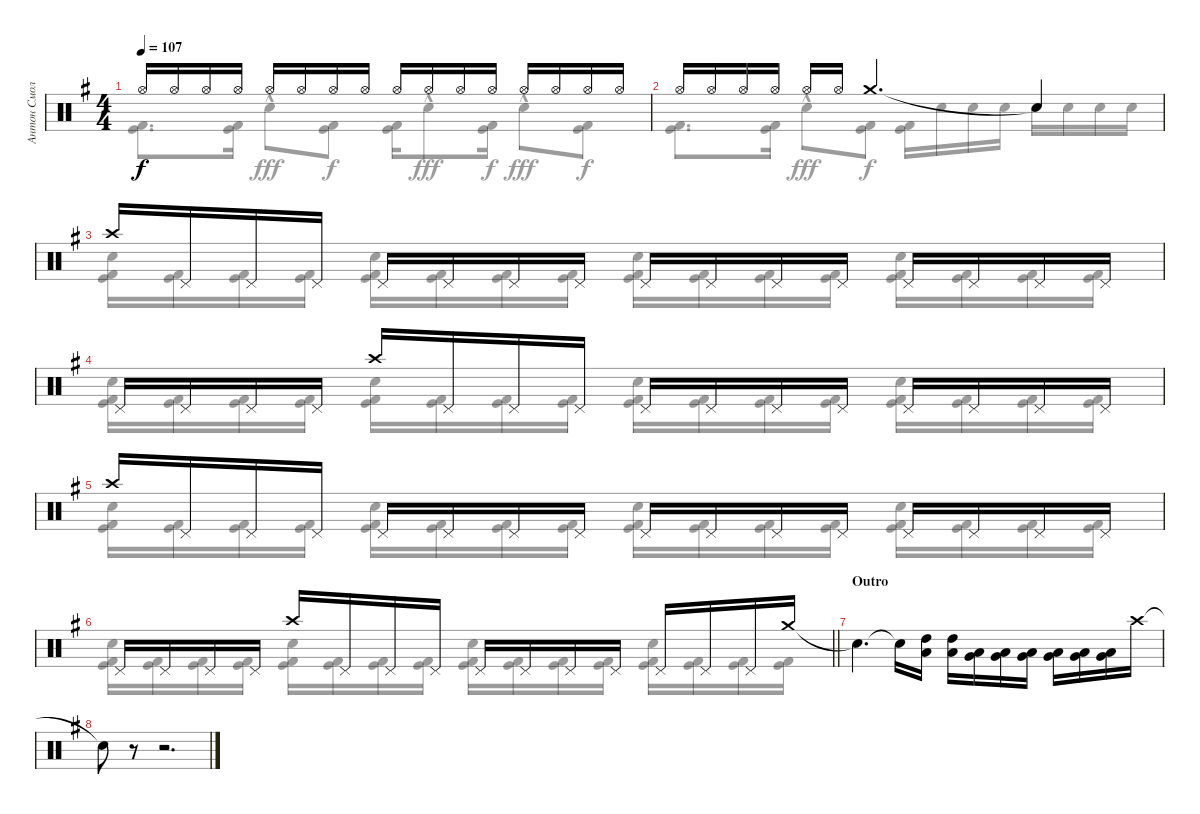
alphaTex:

\track ("Антон Смольянин" "Антон Смол") {instrument percussion}
\staff {score}
\articulation defaults
\voice
\ts (4 4)
\tempo 107
\clef neutral
\ks g "Hi-Hat (open)".16{dy f} "Hi-Hat (open)".16 "Hi-Hat (open)".16 "Hi-Hat (open)".16 "Hi-Hat (open)".16 "Hi-Hat (open)".16 "Hi-Hat (open)".16 "Hi-Hat (open)".16 "Hi-Hat (open)".16 "Hi-Hat (open)".16 "Hi-Hat (open)".16 "Hi-Hat (open)".16 "Hi-Hat (open)".16 "Hi-Hat (open)".16 "Hi-Hat (open)".16 "Hi-Hat (open)".16
|
"Hi-Hat (open)".16 "Hi-Hat (open)".16 "Hi-Hat (open)".16 "Hi-Hat (open)".16 "Hi-Hat (open)".16 "Hi-Hat (open)".16 "Crash medium (hit)".4{d} "Snare (hit)"{t}.4 |
"Crash high (hit)".16 "Pedal Hi-Hat (hit)".16 "Pedal Hi-Hat (hit)".16 "Pedal Hi-Hat (hit)".16 "Pedal Hi-Hat (hit)".16 "Pedal Hi-Hat (hit)".16 "Pedal Hi-Hat (hit)".16 "Pedal Hi-Hat (hit)".16 "Pedal Hi-Hat (hit)".16 "Pedal Hi-Hat (hit)".16 "Pedal Hi-Hat (hit)".16 "Pedal Hi-Hat (hit)".16 "Pedal Hi-Hat (hit)".16 "Pedal Hi-Hat (hit)".16 "Pedal Hi-Hat (hit)".16 "Pedal Hi-Hat (hit)".16 |
"Pedal Hi-Hat (hit)".16 "Pedal Hi-Hat (hit)".16 "Pedal Hi-Hat (hit)".16 "Pedal Hi-Hat (hit)".16 "Crash high (hit)".16 "Pedal Hi-Hat (hit)".16 "Pedal Hi-Hat (hit)".16 "Pedal Hi-Hat (hit)".16 "Pedal Hi-Hat (hit)".16 "Pedal Hi-Hat (hit)".16 "Pedal Hi-Hat (hit)".16 "Pedal Hi-Hat (hit)".16 "Pedal Hi-Hat (hit)".16 "Pedal Hi-Hat (hit)".16 "Pedal Hi-Hat (hit)".16 "Pedal Hi-Hat (hit)".16 |
"Crash high (hit)".16 "Pedal Hi-Hat (hit)".16 "Pedal Hi-Hat (hit)".16 "Pedal Hi-Hat (hit)".16 "Pedal Hi-Hat (hit)".16 "Pedal Hi-Hat (hit)".16 "Pedal Hi-Hat (hit)".16 "Pedal Hi-Hat (hit)".16 "Pedal Hi-Hat (hit)".16 "Pedal Hi-Hat (hit)".16 "Pedal Hi-Hat (hit)".16 "Pedal Hi-Hat (hit)".16 "Pedal Hi-Hat (hit)".16 "Pedal Hi-Hat (hit)".16 "Pedal Hi-Hat (hit)".16 "Pedal Hi-Hat (hit)".16 |
\barLineRight lightlight "Pedal Hi-Hat (hit)".16 "Pedal Hi-Hat (hit)".16 "Pedal Hi-Hat (hit)".16 "Pedal Hi-Hat (hit)".16 "Crash high (hit)".16 "Pedal Hi-Hat (hit)".16 "Pedal Hi-Hat (hit)".16 "Pedal Hi-Hat (hit)".16 "Pedal Hi-Hat (hit)".16 "Pedal Hi-Hat (hit)".16 "Pedal Hi-Hat (hit)".16 "Pedal Hi-Hat (hit)".16 "Pedal Hi-Hat (hit)".16 "Pedal Hi-Hat (hit)".16 "Pedal Hi-Hat (hit)".16 "Crash medium (hit)".16
|
\section ("" "Outro")
"Snare (hit)"{t}.4{d} "Snare (hit)"{t}.16 ("Low Tom (hit)" "High Tom (hit)").16 ("High Tom (hit)" "Low Tom (hit)").16 ("Low Tom (hit)" "Very Low Tom (hit)").16 ("Low Tom (hit)" "Very Low Tom (hit)").16 ("Very Low Tom (hit)" "Low Tom (hit)").16 ("Very Low Tom (hit)" "Low Tom (hit)").16 ("Low Tom (hit)" "Very Low Tom (hit)").16 ("Low Tom (hit)" "Very Low Tom (hit)").16 "Crash high (hit)".16 |
"Snare (hit)"{t}.8 r.8 r.2{d}
\voice
\clef neutral
\ottava regular
\simile none
\ks g
("Kick (hit)" "Kick (hit) 2").8{d dy f} ("Kick (hit)" "Kick (hit) 2").16 "Snare (hit) 2"{hac}.8{dy fff} ("Kick (hit)" "Kick (hit) 2").8{dy f} ("Kick (hit)" "Kick (hit) 2").16 "Snare (hit) 2"{hac}.8{dy fff} ("Kick (hit)" "Kick (hit) 2").16{dy f} "Snare (hit) 2"{hac}.8{dy fff} ("Kick (hit)" "Kick (hit) 2").8{dy f} |
("Kick (hit)" "Kick (hit) 2").8{d} ("Kick (hit)" "Kick (hit) 2").16 "Snare (hit) 2"{hac}.8{dy fff} ("Kick (hit)" "Kick (hit) 2").8{dy f} ("Kick (hit)" "Kick (hit) 2").16 "Snare (hit) 2".16 "Snare (hit) 2".16 "Snare (hit) 2".16 "Snare (hit) 2".16 "Snare (hit) 2".16 "Snare (hit) 2".16 "Snare (hit) 2".16 |
("Kick (hit)" "Kick (hit) 2" "Snare (hit) 2").16 ("Kick (hit)" "Kick (hit) 2").16 ("Kick (hit)" "Kick (hit) 2").16 ("Kick (hit)" "Kick (hit) 2").16 ("Kick (hit)" "Kick (hit) 2" "Snare (hit) 2").16 ("Kick (hit)" "Kick (hit) 2").16 ("Kick (hit)" "Kick (hit) 2").16 ("Kick (hit)" "Kick (hit) 2").16 ("Kick (hit)" "Kick (hit) 2" "Snare (hit) 2").16 ("Kick (hit)" "Kick (hit) 2").16 ("Kick (hit)" "Kick (hit) 2").16 ("Kick (hit)" "Kick (hit) 2").16 ("Kick (hit)" "Kick (hit) 2" "Snare (hit) 2").16 ("Kick (hit)" "Kick (hit) 2").16 ("Kick (hit)" "Kick (hit) 2").16 ("Kick (hit)" "Kick (hit) 2").16 |
("Kick (hit)" "Kick (hit) 2" "Snare (hit) 2").16 ("Kick (hit)" "Kick (hit) 2").16 ("Kick (hit)" "Kick (hit) 2").16 ("Kick (hit)" "Kick (hit) 2").16 ("Kick (hit)" "Kick (hit) 2" "Snare (hit) 2").16 ("Kick (hit)" "Kick (hit) 2").16 ("Kick (hit)" "Kick (hit) 2").16 ("Kick (hit)" "Kick (hit) 2").16 ("Kick (hit)" "Kick (hit) 2" "Snare (hit) 2").16 ("Kick (hit)" "Kick (hit) 2").16 ("Kick (hit)" "Kick (hit) 2").16 ("Kick (hit)" "Kick (hit) 2").16 ("Kick (hit)" "Kick (hit) 2" "Snare (hit) 2").16 ("Kick (hit)" "Kick (hit) 2").16 ("Kick (hit)" "Kick (hit) 2").16 ("Kick (hit)" "Kick (hit) 2").16 |
("Kick (hit)" "Kick (hit) 2" "Snare (hit) 2").16 ("Kick (hit)" "Kick (hit) 2").16 ("Kick (hit)" "Kick (hit) 2").16 ("Kick (hit)" "Kick (hit) 2").16 ("Kick (hit)" "Kick (hit) 2" "Snare (hit) 2").16 ("Kick (hit)" "Kick (hit) 2").16 ("Kick (hit)" "Kick (hit) 2").16 ("Kick (hit)" "Kick (hit) 2").16 ("Kick (hit)" "Kick (hit) 2" "Snare (hit) 2").16 ("Kick (hit)" "Kick (hit) 2").16 ("Kick (hit)" "Kick (hit) 2").16 ("Kick (hit)" "Kick (hit) 2").16 ("Kick (hit)" "Kick (hit) 2" "Snare (hit) 2").16 ("Kick (hit)" "Kick (hit) 2").16 ("Kick (hit)" "Kick (hit) 2").16 ("Kick (hit)" "Kick (hit) 2").16 |
\barLineRight lightlight
("Kick (hit)" "Kick (hit) 2" "Snare (hit) 2").16 ("Kick (hit)" "Kick (hit) 2").16 ("Kick (hit)" "Kick (hit) 2").16 ("Kick (hit)" "Kick (hit) 2").16 ("Kick (hit)" "Kick (hit) 2" "Snare (hit) 2").16 ("Kick (hit)" "Kick (hit) 2").16 ("Kick (hit)" "Kick (hit) 2").16 ("Kick (hit)" "Kick (hit) 2").16 ("Kick (hit)" "Kick (hit) 2" "Snare (hit) 2").16 ("Kick (hit)" "Kick (hit) 2").16 ("Kick (hit)" "Kick (hit) 2").16 ("Kick (hit)" "Kick (hit) 2").16 ("Kick (hit)" "Kick (hit) 2" "Snare (hit) 2").16 ("Kick (hit)" "Kick (hit) 2").16 ("Kick (hit)" "Kick (hit) 2").16 ("Kick (hit)" "Kick (hit) 2").16 |
|
